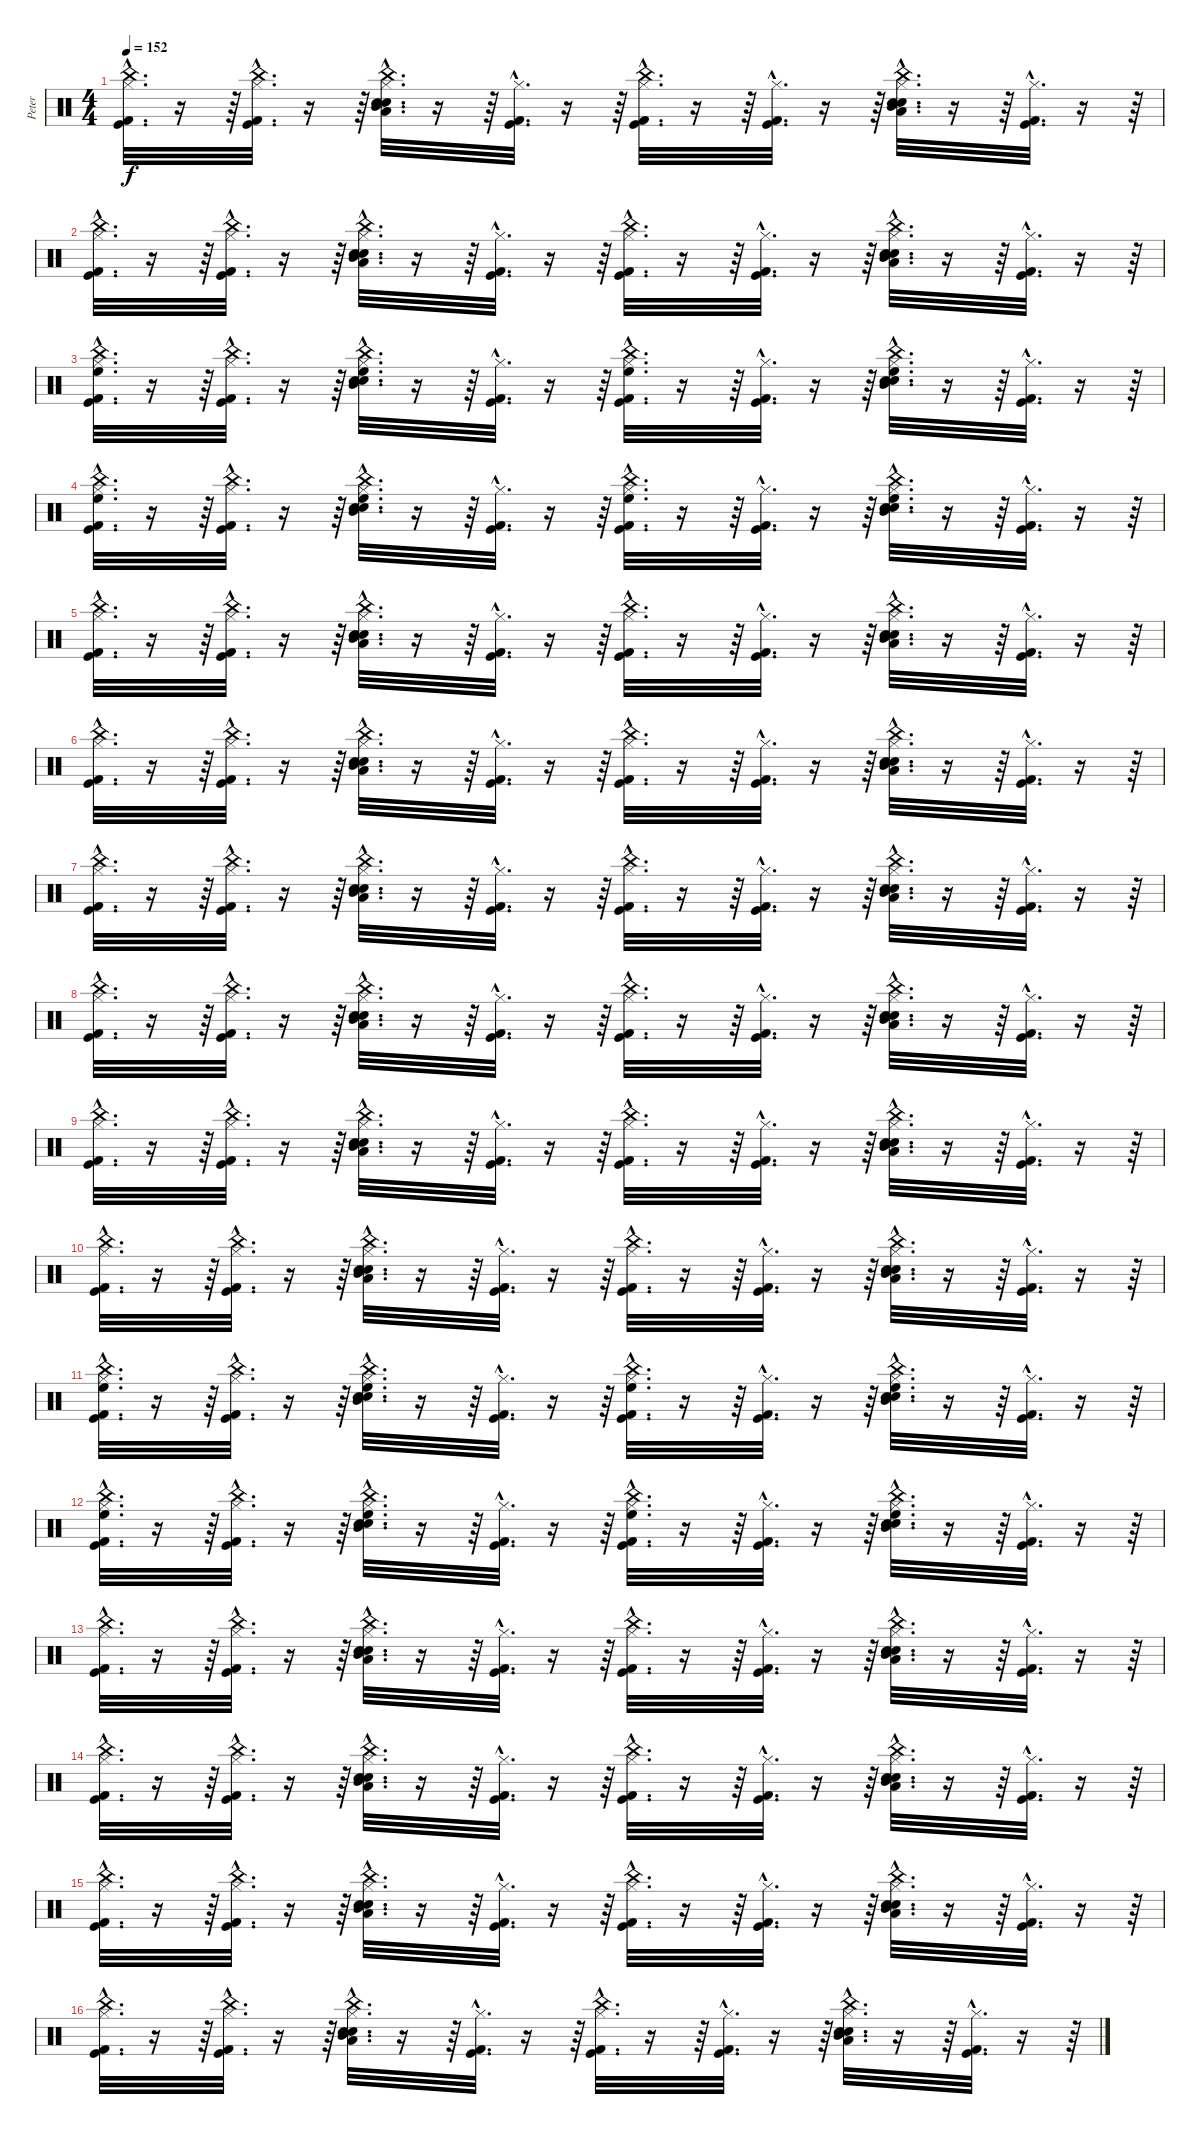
\track ("Peter" "Peter") {instrument percussion}
\staff {score}
\articulation defaults
\ts (4 4)
\tempo 152
\clef neutral
\ks c
("China (hit)"{hac} "Kick (hit) 2"{hac} "Kick (hit)"{hac} "Hi-Hat (closed)"{hac}).32{d dy f} r.16 r.64 ("Kick (hit)"{hac} "Kick (hit) 2"{hac} "China (hit)"{hac} "Hi-Hat (closed)"{hac}).32{d} r.16 r.64 ("China (hit)"{hac} "Electric Snare (hit)"{hac} "Snare (hit) 2"{hac} "Hi-Hat (closed)"{hac} "Mid Tom (hit)"{hac} "Low Tom (hit)"{hac}).32{d} r.16 r.64 ("Kick (hit) 2"{hac} "Kick (hit)"{hac} "Hi-Hat (closed)"{hac}).32{d} r.16 r.64 ("China (hit)"{hac} "Kick (hit)"{hac} "Kick (hit) 2"{hac} "Hi-Hat (closed)"{hac}).32{d} r.16 r.64 ("Kick (hit) 2"{hac} "Kick (hit)"{hac} "Hi-Hat (closed)"{hac}).32{d} r.16 r.64 ("China (hit)"{hac} "Electric Snare (hit)"{hac} "Snare (hit) 2"{hac} "Hi-Hat (closed)"{hac} "Mid Tom (hit)"{hac} "Low Tom (hit)"{hac}).32{d} r.16 r.64 ("Kick (hit) 2"{hac} "Kick (hit)"{hac} "Hi-Hat (closed)"{hac}).32{d} r.16 r.64 |
("China (hit)"{hac} "Kick (hit) 2"{hac} "Kick (hit)"{hac} "Hi-Hat (closed)"{hac}).32{d} r.16 r.64 ("Kick (hit)"{hac} "Kick (hit) 2"{hac} "China (hit)"{hac} "Hi-Hat (closed)"{hac}).32{d} r.16 r.64 ("China (hit)"{hac} "Electric Snare (hit)"{hac} "Snare (hit) 2"{hac} "Hi-Hat (closed)"{hac} "Mid Tom (hit)"{hac} "Low Tom (hit)"{hac}).32{d} r.16 r.64 ("Kick (hit) 2"{hac} "Kick (hit)"{hac} "Hi-Hat (closed)"{hac}).32{d} r.16 r.64 ("China (hit)"{hac} "Kick (hit)"{hac} "Kick (hit) 2"{hac} "Hi-Hat (closed)"{hac}).32{d} r.16 r.64 ("Kick (hit) 2"{hac} "Kick (hit)"{hac} "Hi-Hat (closed)"{hac}).32{d} r.16 r.64 ("China (hit)"{hac} "Electric Snare (hit)"{hac} "Snare (hit) 2"{hac} "Hi-Hat (closed)"{hac} "Mid Tom (hit)"{hac} "Low Tom (hit)"{hac}).32{d} r.16 r.64 ("Kick (hit) 2"{hac} "Kick (hit)"{hac} "Hi-Hat (closed)"{hac}).32{d} r.16 r.64 |
("China (hit)"{hac} "Kick (hit) 2"{hac} "Kick (hit)"{hac} "Hi-Hat (closed)"{hac} "High Floor Tom (hit)"{hac}).32{d} r.16 r.64 ("Kick (hit)"{hac} "Kick (hit) 2"{hac} "China (hit)"{hac} "Hi-Hat (closed)"{hac}).32{d} r.16 r.64 ("China (hit)"{hac} "Electric Snare (hit)"{hac} "Snare (hit) 2"{hac} "Hi-Hat (closed)"{hac} "Mid Tom (hit)"{hac} "High Floor Tom (hit)"{hac}).32{d} r.16 r.64 ("Kick (hit) 2"{hac} "Kick (hit)"{hac} "Hi-Hat (closed)"{hac}).32{d} r.16 r.64 ("China (hit)"{hac} "Kick (hit)"{hac} "Kick (hit) 2"{hac} "Hi-Hat (closed)"{hac} "High Floor Tom (hit)"{hac}).32{d} r.16 r.64 ("Kick (hit) 2"{hac} "Kick (hit)"{hac} "Hi-Hat (closed)"{hac}).32{d} r.16 r.64 ("China (hit)"{hac} "Electric Snare (hit)"{hac} "Snare (hit) 2"{hac} "Hi-Hat (closed)"{hac} "Mid Tom (hit)"{hac} "High Floor Tom (hit)"{hac}).32{d} r.16 r.64 ("Kick (hit) 2"{hac} "Kick (hit)"{hac} "Hi-Hat (closed)"{hac}).32{d} r.16 r.64 |
("China (hit)"{hac} "Kick (hit) 2"{hac} "Kick (hit)"{hac} "Hi-Hat (closed)"{hac} "High Floor Tom (hit)"{hac}).32{d} r.16 r.64 ("Kick (hit)"{hac} "Kick (hit) 2"{hac} "China (hit)"{hac} "Hi-Hat (closed)"{hac}).32{d} r.16 r.64 ("China (hit)"{hac} "Electric Snare (hit)"{hac} "Snare (hit) 2"{hac} "Hi-Hat (closed)"{hac} "Mid Tom (hit)"{hac} "High Floor Tom (hit)"{hac}).32{d} r.16 r.64 ("Kick (hit) 2"{hac} "Kick (hit)"{hac} "Hi-Hat (closed)"{hac}).32{d} r.16 r.64 ("China (hit)"{hac} "Kick (hit)"{hac} "Kick (hit) 2"{hac} "Hi-Hat (closed)"{hac} "High Floor Tom (hit)"{hac}).32{d} r.16 r.64 ("Kick (hit) 2"{hac} "Kick (hit)"{hac} "Hi-Hat (closed)"{hac}).32{d} r.16 r.64 ("China (hit)"{hac} "Electric Snare (hit)"{hac} "Snare (hit) 2"{hac} "Hi-Hat (closed)"{hac} "Mid Tom (hit)"{hac} "High Floor Tom (hit)"{hac}).32{d} r.16 r.64 ("Kick (hit) 2"{hac} "Kick (hit)"{hac} "Hi-Hat (closed)"{hac}).32{d} r.16 r.64 |
("China (hit)"{hac} "Kick (hit) 2"{hac} "Kick (hit)"{hac} "Hi-Hat (closed)"{hac}).32{d} r.16 r.64 ("Kick (hit)"{hac} "Kick (hit) 2"{hac} "China (hit)"{hac} "Hi-Hat (closed)"{hac}).32{d} r.16 r.64 ("China (hit)"{hac} "Electric Snare (hit)"{hac} "Snare (hit) 2"{hac} "Hi-Hat (closed)"{hac} "Mid Tom (hit)"{hac} "Low Tom (hit)"{hac}).32{d} r.16 r.64 ("Kick (hit) 2"{hac} "Kick (hit)"{hac} "Hi-Hat (closed)"{hac}).32{d} r.16 r.64 ("China (hit)"{hac} "Kick (hit)"{hac} "Kick (hit) 2"{hac} "Hi-Hat (closed)"{hac}).32{d} r.16 r.64 ("Kick (hit) 2"{hac} "Kick (hit)"{hac} "Hi-Hat (closed)"{hac}).32{d} r.16 r.64 ("China (hit)"{hac} "Electric Snare (hit)"{hac} "Snare (hit) 2"{hac} "Hi-Hat (closed)"{hac} "Mid Tom (hit)"{hac} "Low Tom (hit)"{hac}).32{d} r.16 r.64 ("Kick (hit) 2"{hac} "Kick (hit)"{hac} "Hi-Hat (closed)"{hac}).32{d} r.16 r.64 |
("China (hit)"{hac} "Kick (hit) 2"{hac} "Kick (hit)"{hac} "Hi-Hat (closed)"{hac}).32{d} r.16 r.64 ("Kick (hit)"{hac} "Kick (hit) 2"{hac} "China (hit)"{hac} "Hi-Hat (closed)"{hac}).32{d} r.16 r.64 ("China (hit)"{hac} "Electric Snare (hit)"{hac} "Snare (hit) 2"{hac} "Hi-Hat (closed)"{hac} "Mid Tom (hit)"{hac} "Low Tom (hit)"{hac}).32{d} r.16 r.64 ("Kick (hit) 2"{hac} "Kick (hit)"{hac} "Hi-Hat (closed)"{hac}).32{d} r.16 r.64 ("China (hit)"{hac} "Kick (hit)"{hac} "Kick (hit) 2"{hac} "Hi-Hat (closed)"{hac}).32{d} r.16 r.64 ("Kick (hit) 2"{hac} "Kick (hit)"{hac} "Hi-Hat (closed)"{hac}).32{d} r.16 r.64 ("China (hit)"{hac} "Electric Snare (hit)"{hac} "Snare (hit) 2"{hac} "Hi-Hat (closed)"{hac} "Mid Tom (hit)"{hac} "Low Tom (hit)"{hac}).32{d} r.16 r.64 ("Kick (hit) 2"{hac} "Kick (hit)"{hac} "Hi-Hat (closed)"{hac}).32{d} r.16 r.64 |
("China (hit)"{hac} "Kick (hit) 2"{hac} "Kick (hit)"{hac} "Hi-Hat (closed)"{hac}).32{d} r.16 r.64 ("Kick (hit)"{hac} "Kick (hit) 2"{hac} "China (hit)"{hac} "Hi-Hat (closed)"{hac}).32{d} r.16 r.64 ("China (hit)"{hac} "Electric Snare (hit)"{hac} "Snare (hit) 2"{hac} "Hi-Hat (closed)"{hac} "Mid Tom (hit)"{hac} "Low Tom (hit)"{hac}).32{d} r.16 r.64 ("Kick (hit) 2"{hac} "Kick (hit)"{hac} "Hi-Hat (closed)"{hac}).32{d} r.16 r.64 ("China (hit)"{hac} "Kick (hit)"{hac} "Kick (hit) 2"{hac} "Hi-Hat (closed)"{hac}).32{d} r.16 r.64 ("Kick (hit) 2"{hac} "Kick (hit)"{hac} "Hi-Hat (closed)"{hac}).32{d} r.16 r.64 ("China (hit)"{hac} "Electric Snare (hit)"{hac} "Snare (hit) 2"{hac} "Hi-Hat (closed)"{hac} "Mid Tom (hit)"{hac} "Low Tom (hit)"{hac}).32{d} r.16 r.64 ("Kick (hit) 2"{hac} "Kick (hit)"{hac} "Hi-Hat (closed)"{hac}).32{d} r.16 r.64 |
("China (hit)"{hac} "Kick (hit) 2"{hac} "Kick (hit)"{hac} "Hi-Hat (closed)"{hac}).32{d} r.16 r.64 ("Kick (hit)"{hac} "Kick (hit) 2"{hac} "China (hit)"{hac} "Hi-Hat (closed)"{hac}).32{d} r.16 r.64 ("China (hit)"{hac} "Electric Snare (hit)"{hac} "Snare (hit) 2"{hac} "Hi-Hat (closed)"{hac} "Mid Tom (hit)"{hac} "Low Tom (hit)"{hac}).32{d} r.16 r.64 ("Kick (hit) 2"{hac} "Kick (hit)"{hac} "Hi-Hat (closed)"{hac}).32{d} r.16 r.64 ("China (hit)"{hac} "Kick (hit)"{hac} "Kick (hit) 2"{hac} "Hi-Hat (closed)"{hac}).32{d} r.16 r.64 ("Kick (hit) 2"{hac} "Kick (hit)"{hac} "Hi-Hat (closed)"{hac}).32{d} r.16 r.64 ("China (hit)"{hac} "Electric Snare (hit)"{hac} "Snare (hit) 2"{hac} "Hi-Hat (closed)"{hac} "Mid Tom (hit)"{hac} "Low Tom (hit)"{hac}).32{d} r.16 r.64 ("Kick (hit) 2"{hac} "Kick (hit)"{hac} "Hi-Hat (closed)"{hac}).32{d} r.16 r.64 |
("China (hit)"{hac} "Kick (hit) 2"{hac} "Kick (hit)"{hac} "Hi-Hat (closed)"{hac}).32{d} r.16 r.64 ("Kick (hit)"{hac} "Kick (hit) 2"{hac} "China (hit)"{hac} "Hi-Hat (closed)"{hac}).32{d} r.16 r.64 ("China (hit)"{hac} "Electric Snare (hit)"{hac} "Snare (hit) 2"{hac} "Hi-Hat (closed)"{hac} "Mid Tom (hit)"{hac} "Low Tom (hit)"{hac}).32{d} r.16 r.64 ("Kick (hit) 2"{hac} "Kick (hit)"{hac} "Hi-Hat (closed)"{hac}).32{d} r.16 r.64 ("China (hit)"{hac} "Kick (hit)"{hac} "Kick (hit) 2"{hac} "Hi-Hat (closed)"{hac}).32{d} r.16 r.64 ("Kick (hit) 2"{hac} "Kick (hit)"{hac} "Hi-Hat (closed)"{hac}).32{d} r.16 r.64 ("China (hit)"{hac} "Electric Snare (hit)"{hac} "Snare (hit) 2"{hac} "Hi-Hat (closed)"{hac} "Mid Tom (hit)"{hac} "Low Tom (hit)"{hac}).32{d} r.16 r.64 ("Kick (hit) 2"{hac} "Kick (hit)"{hac} "Hi-Hat (closed)"{hac}).32{d} r.16 r.64 |
("China (hit)"{hac} "Kick (hit) 2"{hac} "Kick (hit)"{hac} "Hi-Hat (closed)"{hac}).32{d} r.16 r.64 ("Kick (hit)"{hac} "Kick (hit) 2"{hac} "China (hit)"{hac} "Hi-Hat (closed)"{hac}).32{d} r.16 r.64 ("China (hit)"{hac} "Electric Snare (hit)"{hac} "Snare (hit) 2"{hac} "Hi-Hat (closed)"{hac} "Mid Tom (hit)"{hac} "Low Tom (hit)"{hac}).32{d} r.16 r.64 ("Kick (hit) 2"{hac} "Kick (hit)"{hac} "Hi-Hat (closed)"{hac}).32{d} r.16 r.64 ("China (hit)"{hac} "Kick (hit)"{hac} "Kick (hit) 2"{hac} "Hi-Hat (closed)"{hac}).32{d} r.16 r.64 ("Kick (hit) 2"{hac} "Kick (hit)"{hac} "Hi-Hat (closed)"{hac}).32{d} r.16 r.64 ("China (hit)"{hac} "Electric Snare (hit)"{hac} "Snare (hit) 2"{hac} "Hi-Hat (closed)"{hac} "Mid Tom (hit)"{hac} "Low Tom (hit)"{hac}).32{d} r.16 r.64 ("Kick (hit) 2"{hac} "Kick (hit)"{hac} "Hi-Hat (closed)"{hac}).32{d} r.16 r.64 |
("China (hit)"{hac} "Kick (hit) 2"{hac} "Kick (hit)"{hac} "Hi-Hat (closed)"{hac} "High Floor Tom (hit)"{hac}).32{d} r.16 r.64 ("Kick (hit)"{hac} "Kick (hit) 2"{hac} "China (hit)"{hac} "Hi-Hat (closed)"{hac}).32{d} r.16 r.64 ("China (hit)"{hac} "Electric Snare (hit)"{hac} "Snare (hit) 2"{hac} "Hi-Hat (closed)"{hac} "Mid Tom (hit)"{hac} "High Floor Tom (hit)"{hac}).32{d} r.16 r.64 ("Kick (hit) 2"{hac} "Kick (hit)"{hac} "Hi-Hat (closed)"{hac}).32{d} r.16 r.64 ("China (hit)"{hac} "Kick (hit)"{hac} "Kick (hit) 2"{hac} "Hi-Hat (closed)"{hac} "High Floor Tom (hit)"{hac}).32{d} r.16 r.64 ("Kick (hit) 2"{hac} "Kick (hit)"{hac} "Hi-Hat (closed)"{hac}).32{d} r.16 r.64 ("China (hit)"{hac} "Electric Snare (hit)"{hac} "Snare (hit) 2"{hac} "Hi-Hat (closed)"{hac} "Mid Tom (hit)"{hac} "High Floor Tom (hit)"{hac}).32{d} r.16 r.64 ("Kick (hit) 2"{hac} "Kick (hit)"{hac} "Hi-Hat (closed)"{hac}).32{d} r.16 r.64 |
("China (hit)"{hac} "Kick (hit) 2"{hac} "Kick (hit)"{hac} "Hi-Hat (closed)"{hac} "High Floor Tom (hit)"{hac}).32{d} r.16 r.64 ("Kick (hit)"{hac} "Kick (hit) 2"{hac} "China (hit)"{hac} "Hi-Hat (closed)"{hac}).32{d} r.16 r.64 ("China (hit)"{hac} "Electric Snare (hit)"{hac} "Snare (hit) 2"{hac} "Hi-Hat (closed)"{hac} "Mid Tom (hit)"{hac} "High Floor Tom (hit)"{hac}).32{d} r.16 r.64 ("Kick (hit) 2"{hac} "Kick (hit)"{hac} "Hi-Hat (closed)"{hac}).32{d} r.16 r.64 ("China (hit)"{hac} "Kick (hit)"{hac} "Kick (hit) 2"{hac} "Hi-Hat (closed)"{hac} "High Floor Tom (hit)"{hac}).32{d} r.16 r.64 ("Kick (hit) 2"{hac} "Kick (hit)"{hac} "Hi-Hat (closed)"{hac}).32{d} r.16 r.64 ("China (hit)"{hac} "Electric Snare (hit)"{hac} "Snare (hit) 2"{hac} "Hi-Hat (closed)"{hac} "Mid Tom (hit)"{hac} "High Floor Tom (hit)"{hac}).32{d} r.16 r.64 ("Kick (hit) 2"{hac} "Kick (hit)"{hac} "Hi-Hat (closed)"{hac}).32{d} r.16 r.64 |
("China (hit)"{hac} "Kick (hit) 2"{hac} "Kick (hit)"{hac} "Hi-Hat (closed)"{hac}).32{d} r.16 r.64 ("Kick (hit)"{hac} "Kick (hit) 2"{hac} "China (hit)"{hac} "Hi-Hat (closed)"{hac}).32{d} r.16 r.64 ("China (hit)"{hac} "Electric Snare (hit)"{hac} "Snare (hit) 2"{hac} "Hi-Hat (closed)"{hac} "Mid Tom (hit)"{hac} "Low Tom (hit)"{hac}).32{d} r.16 r.64 ("Kick (hit) 2"{hac} "Kick (hit)"{hac} "Hi-Hat (closed)"{hac}).32{d} r.16 r.64 ("China (hit)"{hac} "Kick (hit)"{hac} "Kick (hit) 2"{hac} "Hi-Hat (closed)"{hac}).32{d} r.16 r.64 ("Kick (hit) 2"{hac} "Kick (hit)"{hac} "Hi-Hat (closed)"{hac}).32{d} r.16 r.64 ("China (hit)"{hac} "Electric Snare (hit)"{hac} "Snare (hit) 2"{hac} "Hi-Hat (closed)"{hac} "Mid Tom (hit)"{hac} "Low Tom (hit)"{hac}).32{d} r.16 r.64 ("Kick (hit) 2"{hac} "Kick (hit)"{hac} "Hi-Hat (closed)"{hac}).32{d} r.16 r.64 |
("China (hit)"{hac} "Kick (hit) 2"{hac} "Kick (hit)"{hac} "Hi-Hat (closed)"{hac}).32{d} r.16 r.64 ("Kick (hit)"{hac} "Kick (hit) 2"{hac} "China (hit)"{hac} "Hi-Hat (closed)"{hac}).32{d} r.16 r.64 ("China (hit)"{hac} "Electric Snare (hit)"{hac} "Snare (hit) 2"{hac} "Hi-Hat (closed)"{hac} "Mid Tom (hit)"{hac} "Low Tom (hit)"{hac}).32{d} r.16 r.64 ("Kick (hit) 2"{hac} "Kick (hit)"{hac} "Hi-Hat (closed)"{hac}).32{d} r.16 r.64 ("China (hit)"{hac} "Kick (hit)"{hac} "Kick (hit) 2"{hac} "Hi-Hat (closed)"{hac}).32{d} r.16 r.64 ("Kick (hit) 2"{hac} "Kick (hit)"{hac} "Hi-Hat (closed)"{hac}).32{d} r.16 r.64 ("China (hit)"{hac} "Electric Snare (hit)"{hac} "Snare (hit) 2"{hac} "Hi-Hat (closed)"{hac} "Mid Tom (hit)"{hac} "Low Tom (hit)"{hac}).32{d} r.16 r.64 ("Kick (hit) 2"{hac} "Kick (hit)"{hac} "Hi-Hat (closed)"{hac}).32{d} r.16 r.64 |
("China (hit)"{hac} "Kick (hit) 2"{hac} "Kick (hit)"{hac} "Hi-Hat (closed)"{hac}).32{d} r.16 r.64 ("Kick (hit)"{hac} "Kick (hit) 2"{hac} "China (hit)"{hac} "Hi-Hat (closed)"{hac}).32{d} r.16 r.64 ("China (hit)"{hac} "Electric Snare (hit)"{hac} "Snare (hit) 2"{hac} "Hi-Hat (closed)"{hac} "Mid Tom (hit)"{hac} "Low Tom (hit)"{hac}).32{d} r.16 r.64 ("Kick (hit) 2"{hac} "Kick (hit)"{hac} "Hi-Hat (closed)"{hac}).32{d} r.16 r.64 ("China (hit)"{hac} "Kick (hit)"{hac} "Kick (hit) 2"{hac} "Hi-Hat (closed)"{hac}).32{d} r.16 r.64 ("Kick (hit) 2"{hac} "Kick (hit)"{hac} "Hi-Hat (closed)"{hac}).32{d} r.16 r.64 ("China (hit)"{hac} "Electric Snare (hit)"{hac} "Snare (hit) 2"{hac} "Hi-Hat (closed)"{hac} "Mid Tom (hit)"{hac} "Low Tom (hit)"{hac}).32{d} r.16 r.64 ("Kick (hit) 2"{hac} "Kick (hit)"{hac} "Hi-Hat (closed)"{hac}).32{d} r.16 r.64 |
("China (hit)"{hac} "Kick (hit) 2"{hac} "Kick (hit)"{hac} "Hi-Hat (closed)"{hac}).32{d} r.16 r.64 ("Kick (hit)"{hac} "Kick (hit) 2"{hac} "China (hit)"{hac} "Hi-Hat (closed)"{hac}).32{d} r.16 r.64 ("China (hit)"{hac} "Electric Snare (hit)"{hac} "Snare (hit) 2"{hac} "Hi-Hat (closed)"{hac} "Mid Tom (hit)"{hac} "Low Tom (hit)"{hac}).32{d} r.16 r.64 ("Kick (hit) 2"{hac} "Kick (hit)"{hac} "Hi-Hat (closed)"{hac}).32{d} r.16 r.64 ("China (hit)"{hac} "Kick (hit)"{hac} "Kick (hit) 2"{hac} "Hi-Hat (closed)"{hac}).32{d} r.16 r.64 ("Kick (hit) 2"{hac} "Kick (hit)"{hac} "Hi-Hat (closed)"{hac}).32{d} r.16 r.64 ("China (hit)"{hac} "Electric Snare (hit)"{hac} "Snare (hit) 2"{hac} "Hi-Hat (closed)"{hac} "Mid Tom (hit)"{hac} "Low Tom (hit)"{hac}).32{d} r.16 r.64 ("Kick (hit) 2"{hac} "Kick (hit)"{hac} "Hi-Hat (closed)"{hac}).32{d} r.16 r.64
